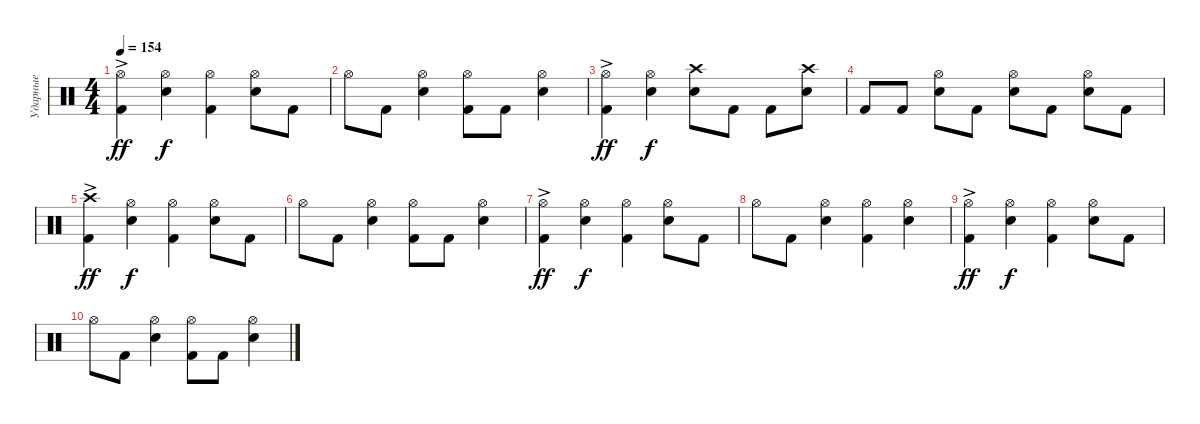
\track ("Ударные" "Ударные") {instrument percussion}
\staff {score}
\articulation defaults
\ts (4 4)
\tempo 154
\clef neutral
\ks c
("Kick (hit) 2" "Hi-Hat (open)"{ac}).4{dy ff} ("Snare (hit) 2" "Hi-Hat (open)").4{dy f} ("Kick (hit) 2" "Hi-Hat (open)").4 ("Snare (hit) 2" "Hi-Hat (open)").8 "Kick (hit) 2".8 |
"Hi-Hat (open)".8 "Kick (hit) 2".8 ("Snare (hit) 2" "Hi-Hat (open)").4 ("Kick (hit) 2" "Hi-Hat (open)").8 "Kick (hit) 2".8 ("Snare (hit) 2" "Hi-Hat (open)").4 |
("Kick (hit) 2" "Hi-Hat (open)"{ac}).4{dy ff} ("Snare (hit) 2" "Hi-Hat (open)").4{dy f} ("Snare (hit) 2" "Crash high (hit)").8 "Kick (hit) 2".8 "Kick (hit) 2".8 ("Snare (hit) 2" "Crash high (hit)").8 |
"Kick (hit) 2".8 "Kick (hit) 2".8 ("Snare (hit) 2" "Hi-Hat (open)").8 "Kick (hit) 2".8 ("Electric Snare (hit)" "Hi-Hat (open)").8 "Kick (hit) 2".8 ("Electric Snare (hit)" "Hi-Hat (open)").8 "Kick (hit) 2".8 |
("Kick (hit) 2" "Crash high (hit)"{ac}).4{dy ff} ("Snare (hit) 2" "Hi-Hat (open)").4{dy f} ("Kick (hit) 2" "Hi-Hat (open)").4 ("Snare (hit) 2" "Hi-Hat (open)").8 "Kick (hit) 2".8 |
"Hi-Hat (open)".8 "Kick (hit) 2".8 ("Snare (hit) 2" "Hi-Hat (open)").4 ("Kick (hit) 2" "Hi-Hat (open)").8 "Kick (hit) 2".8 ("Snare (hit) 2" "Hi-Hat (open)").4 |
("Kick (hit) 2" "Hi-Hat (open)"{ac}).4{dy ff} ("Snare (hit) 2" "Hi-Hat (open)").4{dy f} ("Kick (hit) 2" "Hi-Hat (open)").4 ("Snare (hit) 2" "Hi-Hat (open)").8 "Kick (hit) 2".8 |
"Hi-Hat (open)".8 "Kick (hit) 2".8 ("Snare (hit) 2" "Hi-Hat (open)").4 ("Kick (hit) 2" "Hi-Hat (open)").4 ("Snare (hit) 2" "Hi-Hat (open)").4 |
("Kick (hit) 2" "Hi-Hat (open)"{ac}).4{dy ff} ("Snare (hit) 2" "Hi-Hat (open)").4{dy f} ("Kick (hit) 2" "Hi-Hat (open)").4 ("Snare (hit) 2" "Hi-Hat (open)").8 "Kick (hit) 2".8 |
"Hi-Hat (open)".8 "Kick (hit) 2".8 ("Snare (hit) 2" "Hi-Hat (open)").4 ("Kick (hit) 2" "Hi-Hat (open)").8 "Kick (hit) 2".8 ("Snare (hit) 2" "Hi-Hat (open)").4
